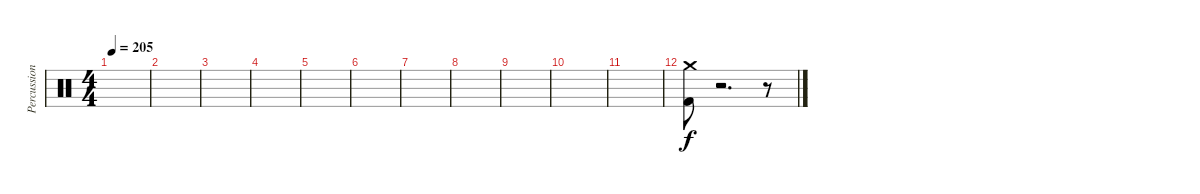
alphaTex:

\track ("Percussion" "Percussion") {instrument percussion}
\staff {score}
\articulation defaults
\ts (4 4)
\tempo 205
\clef neutral
\ks c
|
|
|
|
|
|
|
|
|
|
|
("Crash medium (hit)" "Kick (hit) 2").8 r.2{d} r.8
